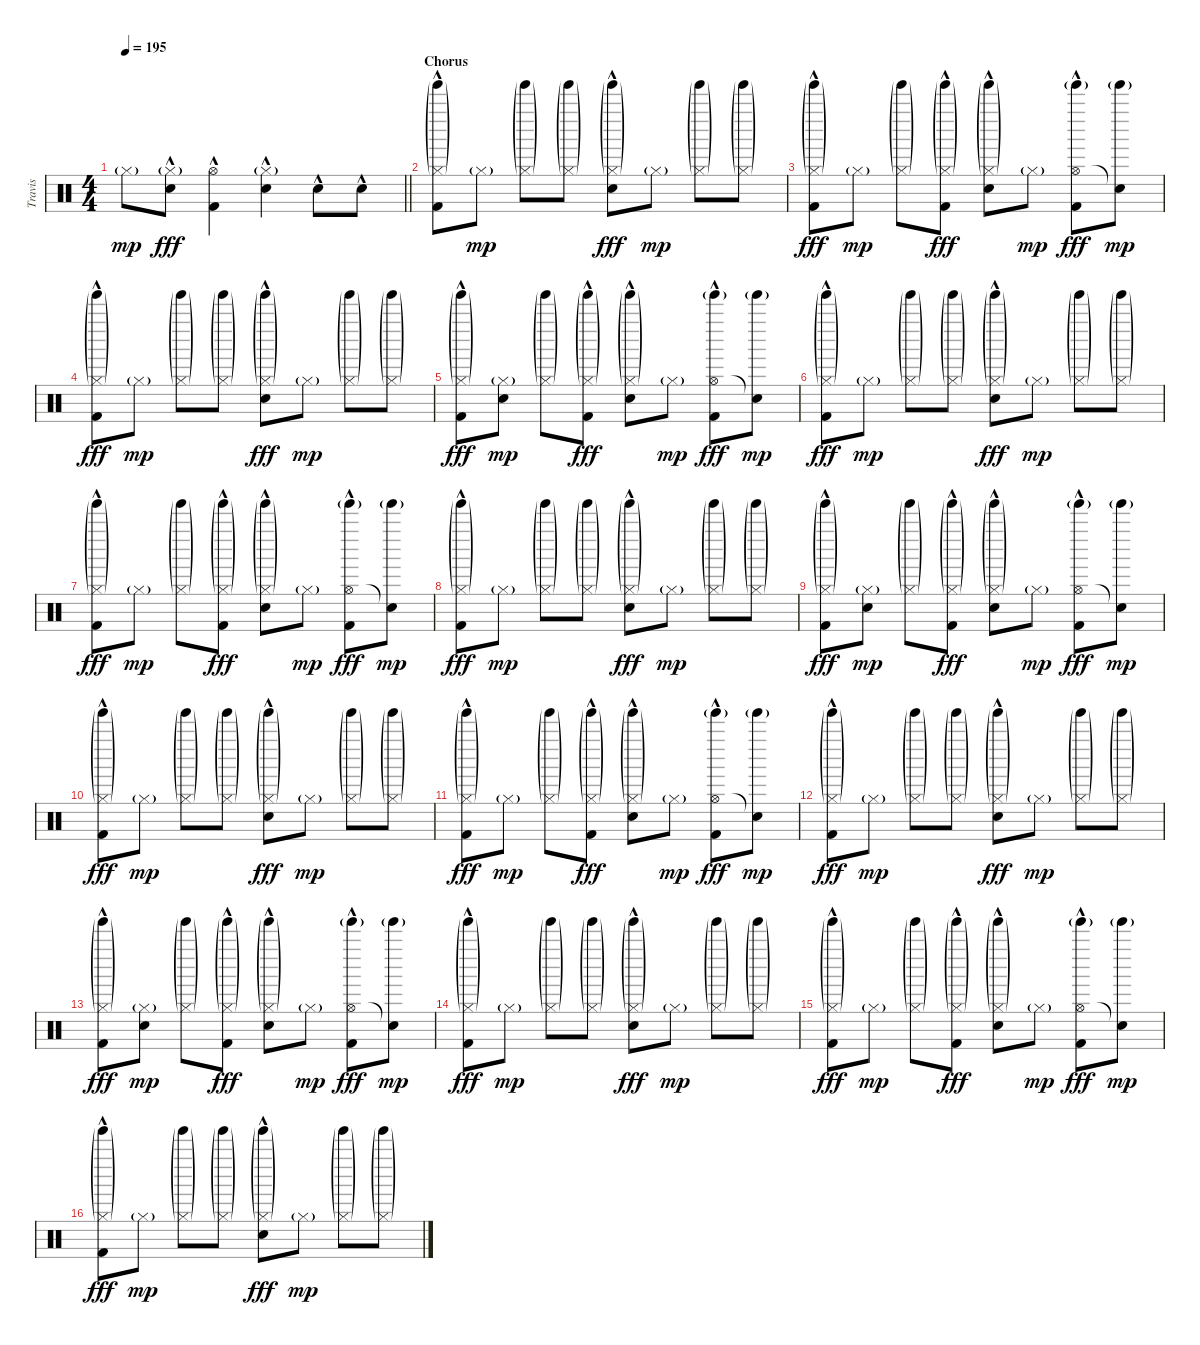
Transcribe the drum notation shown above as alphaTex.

\track ("Travis" "Travis") {instrument percussion}
\staff {score}
\articulation defaults
\ts (4 4)
\tempo 195
\clef neutral
\barLineRight lightlight
\ks c "Hi-Hat (closed)"{g}.8{dy mp}
("Hi-Hat (closed)"{g} "Electric Snare (hit)"{hac}).8{dy fff} ("Hi-Hat (open)" "Kick (hit) 2"{hac}).4 ("Hi-Hat (closed)"{g} "Electric Snare (hit)"{hac}).4 "Electric Snare (hit)"{hac}.8 "Electric Snare (hit)"{hac}.8 |
\section ("" "Chorus")
("Tinkle Bell (hit)"{g} "Hi-Hat (closed)"{g} "Kick (hit) 2"{hac}).8 "Hi-Hat (closed)"{g}.8{dy mp} ("Tinkle Bell (hit)"{g} "Hi-Hat (closed)"{g}).8 ("Tinkle Bell (hit)"{g} "Hi-Hat (closed)"{g}).8 ("Tinkle Bell (hit)"{g} "Hi-Hat (closed)"{g} "Electric Snare (hit)"{hac}).8{dy fff} "Hi-Hat (closed)"{g}.8{dy mp} ("Tinkle Bell (hit)"{g} "Hi-Hat (closed)"{g}).8 ("Tinkle Bell (hit)"{g} "Hi-Hat (closed)"{g}).8 |
("Tinkle Bell (hit)"{g} "Hi-Hat (closed)"{g} "Kick (hit) 2"{hac}).8{dy fff} "Hi-Hat (closed)"{g}.8{dy mp} ("Tinkle Bell (hit)"{g} "Hi-Hat (closed)"{g}).8 ("Tinkle Bell (hit)"{g} "Hi-Hat (closed)"{g} "Kick (hit) 2"{hac}).8{dy fff} ("Tinkle Bell (hit)"{g} "Hi-Hat (closed)"{g} "Electric Snare (hit)"{hac}).8 "Hi-Hat (closed)"{g}.8{dy mp} ("Tinkle Bell (hit)"{g} "Hi-Hat (open)" "Kick (hit) 2"{hac}).8{dy fff} ("Tinkle Bell (hit)"{g} "Snare (hit)"{t}).8{dy mp} |
("Tinkle Bell (hit)"{g} "Hi-Hat (closed)"{g} "Kick (hit) 2"{hac}).8{dy fff} "Hi-Hat (closed)"{g}.8{dy mp} ("Tinkle Bell (hit)"{g} "Hi-Hat (closed)"{g}).8 ("Tinkle Bell (hit)"{g} "Hi-Hat (closed)"{g}).8 ("Tinkle Bell (hit)"{g} "Hi-Hat (closed)"{g} "Electric Snare (hit)"{hac}).8{dy fff} "Hi-Hat (closed)"{g}.8{dy mp} ("Tinkle Bell (hit)"{g} "Hi-Hat (closed)"{g}).8 ("Tinkle Bell (hit)"{g} "Hi-Hat (closed)"{g}).8 |
("Tinkle Bell (hit)"{g} "Hi-Hat (closed)"{g} "Kick (hit) 2"{hac}).8{dy fff} ("Hi-Hat (closed)"{g} "Electric Snare (hit)").8{dy mp} ("Tinkle Bell (hit)"{g} "Hi-Hat (closed)"{g}).8 ("Tinkle Bell (hit)"{g} "Hi-Hat (closed)"{g} "Kick (hit) 2"{hac}).8{dy fff} ("Tinkle Bell (hit)"{g} "Hi-Hat (closed)"{g} "Electric Snare (hit)"{hac}).8 "Hi-Hat (closed)"{g}.8{dy mp} ("Tinkle Bell (hit)"{g} "Hi-Hat (open)" "Kick (hit) 2"{hac}).8{dy fff} ("Tinkle Bell (hit)"{g} "Snare (hit)"{t}).8{dy mp} |
("Tinkle Bell (hit)"{g} "Hi-Hat (closed)"{g} "Kick (hit) 2"{hac}).8{dy fff} "Hi-Hat (closed)"{g}.8{dy mp} ("Tinkle Bell (hit)"{g} "Hi-Hat (closed)"{g}).8 ("Tinkle Bell (hit)"{g} "Hi-Hat (closed)"{g}).8 ("Tinkle Bell (hit)"{g} "Hi-Hat (closed)"{g} "Electric Snare (hit)"{hac}).8{dy fff} "Hi-Hat (closed)"{g}.8{dy mp} ("Tinkle Bell (hit)"{g} "Hi-Hat (closed)"{g}).8 ("Tinkle Bell (hit)"{g} "Hi-Hat (closed)"{g}).8 |
("Tinkle Bell (hit)"{g} "Hi-Hat (closed)"{g} "Kick (hit) 2"{hac}).8{dy fff} "Hi-Hat (closed)"{g}.8{dy mp} ("Tinkle Bell (hit)"{g} "Hi-Hat (closed)"{g}).8 ("Tinkle Bell (hit)"{g} "Hi-Hat (closed)"{g} "Kick (hit) 2"{hac}).8{dy fff} ("Tinkle Bell (hit)"{g} "Hi-Hat (closed)"{g} "Electric Snare (hit)"{hac}).8 "Hi-Hat (closed)"{g}.8{dy mp} ("Tinkle Bell (hit)"{g} "Hi-Hat (open)" "Kick (hit) 2"{hac}).8{dy fff} ("Tinkle Bell (hit)"{g} "Snare (hit)"{t}).8{dy mp} |
("Tinkle Bell (hit)"{g} "Hi-Hat (closed)"{g} "Kick (hit) 2"{hac}).8{dy fff} "Hi-Hat (closed)"{g}.8{dy mp} ("Tinkle Bell (hit)"{g} "Hi-Hat (closed)"{g}).8 ("Tinkle Bell (hit)"{g} "Hi-Hat (closed)"{g}).8 ("Tinkle Bell (hit)"{g} "Hi-Hat (closed)"{g} "Electric Snare (hit)"{hac}).8{dy fff} "Hi-Hat (closed)"{g}.8{dy mp} ("Tinkle Bell (hit)"{g} "Hi-Hat (closed)"{g}).8 ("Tinkle Bell (hit)"{g} "Hi-Hat (closed)"{g}).8 |
("Tinkle Bell (hit)"{g} "Hi-Hat (closed)"{g} "Kick (hit) 2"{hac}).8{dy fff} ("Hi-Hat (closed)"{g} "Electric Snare (hit)").8{dy mp} ("Tinkle Bell (hit)"{g} "Hi-Hat (closed)"{g}).8 ("Tinkle Bell (hit)"{g} "Hi-Hat (closed)"{g} "Kick (hit) 2"{hac}).8{dy fff} ("Tinkle Bell (hit)"{g} "Hi-Hat (closed)"{g} "Electric Snare (hit)"{hac}).8 "Hi-Hat (closed)"{g}.8{dy mp} ("Tinkle Bell (hit)"{g} "Hi-Hat (open)" "Kick (hit) 2"{hac}).8{dy fff} ("Tinkle Bell (hit)"{g} "Snare (hit)"{t}).8{dy mp} |
("Tinkle Bell (hit)"{g} "Hi-Hat (closed)"{g} "Kick (hit) 2"{hac}).8{dy fff} "Hi-Hat (closed)"{g}.8{dy mp} ("Tinkle Bell (hit)"{g} "Hi-Hat (closed)"{g}).8 ("Tinkle Bell (hit)"{g} "Hi-Hat (closed)"{g}).8 ("Tinkle Bell (hit)"{g} "Hi-Hat (closed)"{g} "Electric Snare (hit)"{hac}).8{dy fff} "Hi-Hat (closed)"{g}.8{dy mp} ("Tinkle Bell (hit)"{g} "Hi-Hat (closed)"{g}).8 ("Tinkle Bell (hit)"{g} "Hi-Hat (closed)"{g}).8 |
("Tinkle Bell (hit)"{g} "Hi-Hat (closed)"{g} "Kick (hit) 2"{hac}).8{dy fff} "Hi-Hat (closed)"{g}.8{dy mp} ("Tinkle Bell (hit)"{g} "Hi-Hat (closed)"{g}).8 ("Tinkle Bell (hit)"{g} "Hi-Hat (closed)"{g} "Kick (hit) 2"{hac}).8{dy fff} ("Tinkle Bell (hit)"{g} "Hi-Hat (closed)"{g} "Electric Snare (hit)"{hac}).8 "Hi-Hat (closed)"{g}.8{dy mp} ("Tinkle Bell (hit)"{g} "Hi-Hat (open)" "Kick (hit) 2"{hac}).8{dy fff} ("Tinkle Bell (hit)"{g} "Snare (hit)"{t}).8{dy mp} |
("Tinkle Bell (hit)"{g} "Hi-Hat (closed)"{g} "Kick (hit) 2"{hac}).8{dy fff} "Hi-Hat (closed)"{g}.8{dy mp} ("Tinkle Bell (hit)"{g} "Hi-Hat (closed)"{g}).8 ("Tinkle Bell (hit)"{g} "Hi-Hat (closed)"{g}).8 ("Tinkle Bell (hit)"{g} "Hi-Hat (closed)"{g} "Electric Snare (hit)"{hac}).8{dy fff} "Hi-Hat (closed)"{g}.8{dy mp} ("Tinkle Bell (hit)"{g} "Hi-Hat (closed)"{g}).8 ("Tinkle Bell (hit)"{g} "Hi-Hat (closed)"{g}).8 |
("Tinkle Bell (hit)"{g} "Hi-Hat (closed)"{g} "Kick (hit) 2"{hac}).8{dy fff} ("Hi-Hat (closed)"{g} "Electric Snare (hit)").8{dy mp} ("Tinkle Bell (hit)"{g} "Hi-Hat (closed)"{g}).8 ("Tinkle Bell (hit)"{g} "Hi-Hat (closed)"{g} "Kick (hit) 2"{hac}).8{dy fff} ("Tinkle Bell (hit)"{g} "Hi-Hat (closed)"{g} "Electric Snare (hit)"{hac}).8 "Hi-Hat (closed)"{g}.8{dy mp} ("Tinkle Bell (hit)"{g} "Hi-Hat (open)" "Kick (hit) 2"{hac}).8{dy fff} ("Tinkle Bell (hit)"{g} "Snare (hit)"{t}).8{dy mp} |
("Tinkle Bell (hit)"{g} "Hi-Hat (closed)"{g} "Kick (hit) 2"{hac}).8{dy fff} "Hi-Hat (closed)"{g}.8{dy mp} ("Tinkle Bell (hit)"{g} "Hi-Hat (closed)"{g}).8 ("Tinkle Bell (hit)"{g} "Hi-Hat (closed)"{g}).8 ("Tinkle Bell (hit)"{g} "Hi-Hat (closed)"{g} "Electric Snare (hit)"{hac}).8{dy fff} "Hi-Hat (closed)"{g}.8{dy mp} ("Tinkle Bell (hit)"{g} "Hi-Hat (closed)"{g}).8 ("Tinkle Bell (hit)"{g} "Hi-Hat (closed)"{g}).8 |
("Tinkle Bell (hit)"{g} "Hi-Hat (closed)"{g} "Kick (hit) 2"{hac}).8{dy fff} "Hi-Hat (closed)"{g}.8{dy mp} ("Tinkle Bell (hit)"{g} "Hi-Hat (closed)"{g}).8 ("Tinkle Bell (hit)"{g} "Hi-Hat (closed)"{g} "Kick (hit) 2"{hac}).8{dy fff} ("Tinkle Bell (hit)"{g} "Hi-Hat (closed)"{g} "Electric Snare (hit)"{hac}).8 "Hi-Hat (closed)"{g}.8{dy mp} ("Tinkle Bell (hit)"{g} "Hi-Hat (open)" "Kick (hit) 2"{hac}).8{dy fff} ("Tinkle Bell (hit)"{g} "Snare (hit)"{t}).8{dy mp} |
("Tinkle Bell (hit)"{g} "Hi-Hat (closed)"{g} "Kick (hit) 2"{hac}).8{dy fff} "Hi-Hat (closed)"{g}.8{dy mp} ("Tinkle Bell (hit)"{g} "Hi-Hat (closed)"{g}).8 ("Tinkle Bell (hit)"{g} "Hi-Hat (closed)"{g}).8 ("Tinkle Bell (hit)"{g} "Hi-Hat (closed)"{g} "Electric Snare (hit)"{hac}).8{dy fff} "Hi-Hat (closed)"{g}.8{dy mp} ("Tinkle Bell (hit)"{g} "Hi-Hat (closed)"{g}).8 ("Tinkle Bell (hit)"{g} "Hi-Hat (closed)"{g}).8
